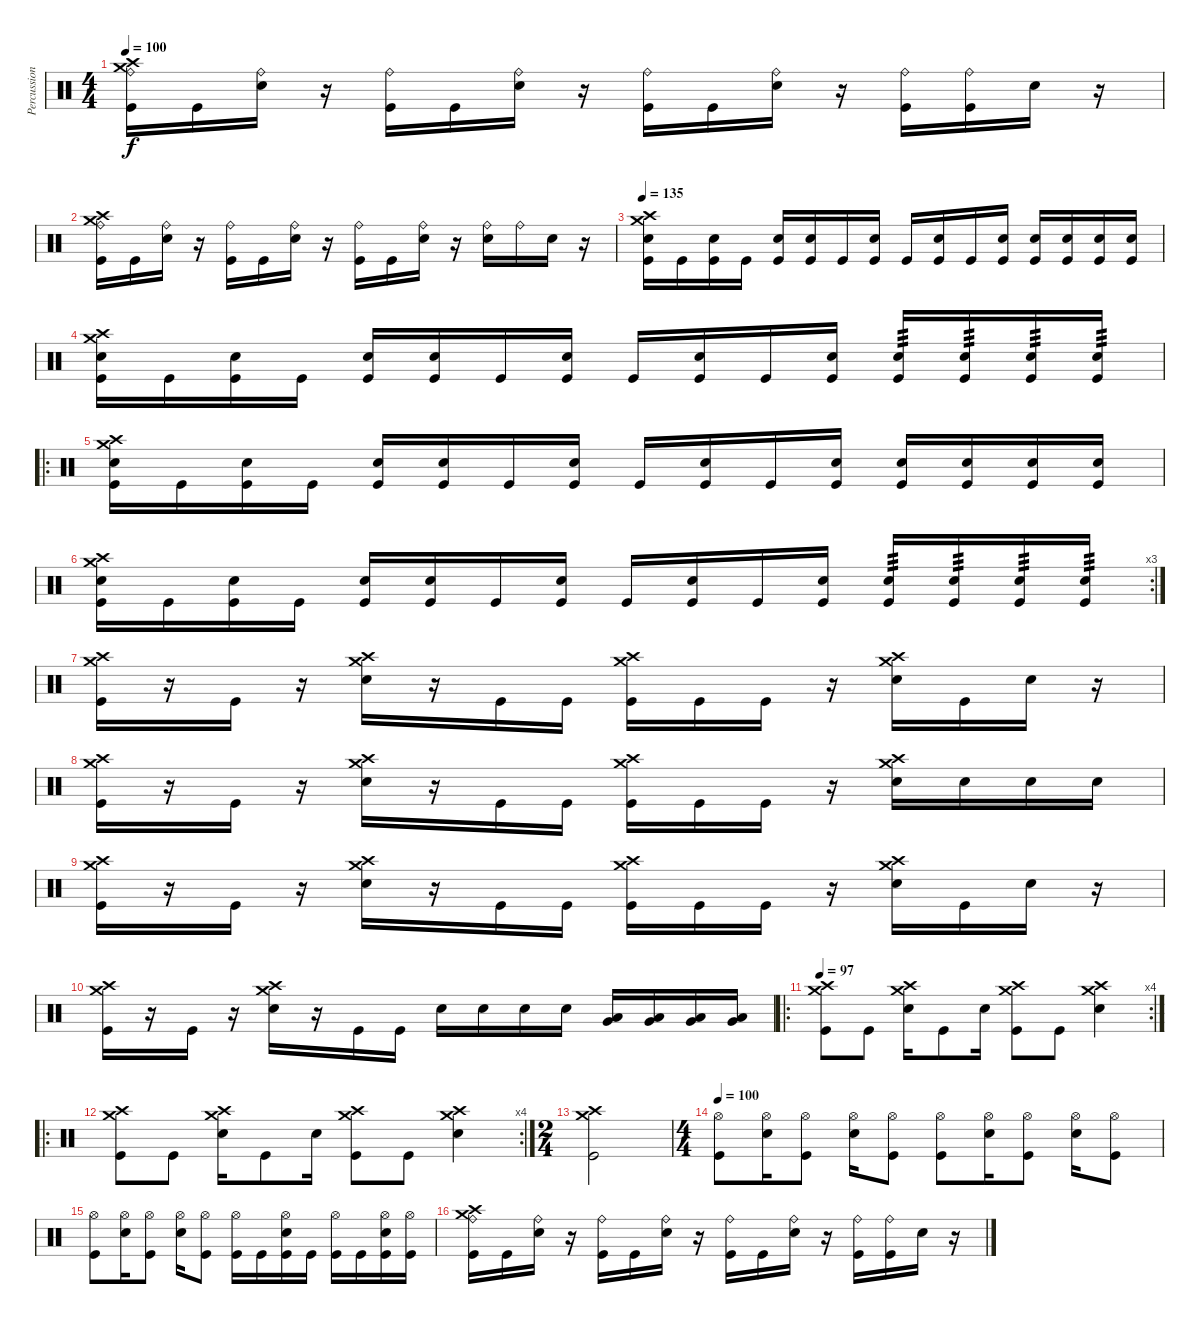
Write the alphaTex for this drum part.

\track ("Percussion" "Percussion") {instrument percussion}
\staff {score}
\articulation defaults
\ts (4 4)
\tempo 100
\clef neutral
\ks c
("Crash medium (hit)" "Crash high (hit)" "Ride (bell)" "Kick (hit)").16{dy f} "Kick (hit)".16 ("Ride (bell)" "Snare (hit) 2").16 r.16 ("Ride (bell)" "Kick (hit)").16 "Kick (hit)".16 ("Ride (bell)" "Snare (hit) 2").16 r.16 ("Ride (bell)" "Kick (hit)").16 "Kick (hit)".16 ("Ride (bell)" "Snare (hit) 2").16 r.16 ("Ride (bell)" "Kick (hit)").16 ("Ride (bell)" "Kick (hit)").16 "Snare (hit) 2".16 r.16 |
("Crash medium (hit)" "Crash high (hit)" "Ride (bell)" "Kick (hit)").16 "Kick (hit)".16 ("Ride (bell)" "Snare (hit) 2").16 r.16 ("Ride (bell)" "Kick (hit)").16 "Kick (hit)".16 ("Ride (bell)" "Snare (hit) 2").16 r.16 ("Ride (bell)" "Kick (hit)").16 "Kick (hit)".16 ("Ride (bell)" "Snare (hit) 2").16 r.16 ("Ride (bell)" "Snare (hit) 2").16 "Ride (bell)".16 "Snare (hit) 2".16 r.16 |
\tempo 135
("Crash medium (hit)" "Crash high (hit)" "Snare (hit) 2" "Kick (hit)").16 "Kick (hit)".16 ("Snare (hit) 2" "Kick (hit)").16 "Kick (hit)".16 ("Snare (hit) 2" "Kick (hit)").16 ("Snare (hit) 2" "Kick (hit)").16 "Kick (hit)".16 ("Snare (hit) 2" "Kick (hit)").16 "Kick (hit)".16 ("Snare (hit) 2" "Kick (hit)").16 "Kick (hit)".16 ("Snare (hit) 2" "Kick (hit)").16 ("Snare (hit) 2" "Kick (hit)").16 ("Snare (hit) 2" "Kick (hit)").16 ("Snare (hit) 2" "Kick (hit)").16 ("Snare (hit) 2" "Kick (hit)").16 |
("Crash medium (hit)" "Crash high (hit)" "Snare (hit) 2" "Kick (hit)").16 "Kick (hit)".16 ("Snare (hit) 2" "Kick (hit)").16 "Kick (hit)".16 ("Snare (hit) 2" "Kick (hit)").16 ("Snare (hit) 2" "Kick (hit)").16 "Kick (hit)".16 ("Snare (hit) 2" "Kick (hit)").16 "Kick (hit)".16 ("Snare (hit) 2" "Kick (hit)").16 "Kick (hit)".16 ("Snare (hit) 2" "Kick (hit)").16 ("Snare (hit) 2" "Kick (hit)").16{tp 3} ("Snare (hit) 2" "Kick (hit)").16{tp 3} ("Snare (hit) 2" "Kick (hit)").16{tp 3} ("Snare (hit) 2" "Kick (hit)").16{tp 3} |
\ro
("Crash medium (hit)" "Crash high (hit)" "Snare (hit) 2" "Kick (hit)").16 "Kick (hit)".16 ("Snare (hit) 2" "Kick (hit)").16 "Kick (hit)".16 ("Snare (hit) 2" "Kick (hit)").16 ("Snare (hit) 2" "Kick (hit)").16 "Kick (hit)".16 ("Snare (hit) 2" "Kick (hit)").16 "Kick (hit)".16 ("Snare (hit) 2" "Kick (hit)").16 "Kick (hit)".16 ("Snare (hit) 2" "Kick (hit)").16 ("Snare (hit) 2" "Kick (hit)").16 ("Snare (hit) 2" "Kick (hit)").16 ("Snare (hit) 2" "Kick (hit)").16 ("Snare (hit) 2" "Kick (hit)").16 |
\rc 3
("Crash medium (hit)" "Crash high (hit)" "Snare (hit) 2" "Kick (hit)").16 "Kick (hit)".16 ("Snare (hit) 2" "Kick (hit)").16 "Kick (hit)".16 ("Snare (hit) 2" "Kick (hit)").16 ("Snare (hit) 2" "Kick (hit)").16 "Kick (hit)".16 ("Snare (hit) 2" "Kick (hit)").16 "Kick (hit)".16 ("Snare (hit) 2" "Kick (hit)").16 "Kick (hit)".16 ("Snare (hit) 2" "Kick (hit)").16 ("Snare (hit) 2" "Kick (hit)").16{tp 3} ("Snare (hit) 2" "Kick (hit)").16{tp 3} ("Snare (hit) 2" "Kick (hit)").16{tp 3} ("Snare (hit) 2" "Kick (hit)").16{tp 3} |
("Crash medium (hit)" "Crash high (hit)" "Kick (hit)").16 r.16 "Kick (hit)".16 r.16 ("Crash medium (hit)" "Crash high (hit)" "Snare (hit) 2").16 r.16 "Kick (hit)".16 "Kick (hit)".16 ("Crash medium (hit)" "Crash high (hit)" "Kick (hit)").16 "Kick (hit)".16 "Kick (hit)".16 r.16 ("Crash medium (hit)" "Crash high (hit)" "Snare (hit) 2").16 "Kick (hit)".16 "Snare (hit) 2".16 r.16 |
("Crash medium (hit)" "Crash high (hit)" "Kick (hit)").16 r.16 "Kick (hit)".16 r.16 ("Crash medium (hit)" "Crash high (hit)" "Snare (hit) 2").16 r.16 "Kick (hit)".16 "Kick (hit)".16 ("Crash medium (hit)" "Crash high (hit)" "Kick (hit)").16 "Kick (hit)".16 "Kick (hit)".16 r.16 ("Crash medium (hit)" "Crash high (hit)" "Snare (hit) 2").16 "Snare (hit) 2".16 "Snare (hit) 2".16 "Snare (hit) 2".16 |
("Crash medium (hit)" "Crash high (hit)" "Kick (hit)").16 r.16 "Kick (hit)".16 r.16 ("Crash medium (hit)" "Crash high (hit)" "Snare (hit) 2").16 r.16 "Kick (hit)".16 "Kick (hit)".16 ("Crash medium (hit)" "Crash high (hit)" "Kick (hit)").16 "Kick (hit)".16 "Kick (hit)".16 r.16 ("Crash medium (hit)" "Crash high (hit)" "Snare (hit) 2").16 "Kick (hit)".16 "Snare (hit) 2".16 r.16 |
("Crash medium (hit)" "Crash high (hit)" "Kick (hit)").16 r.16 "Kick (hit)".16 r.16 ("Crash medium (hit)" "Crash high (hit)" "Snare (hit) 2").16 r.16 "Kick (hit)".16 "Kick (hit)".16 "Electric Snare (hit)".16 "Electric Snare (hit)".16 "Electric Snare (hit)".16 "Electric Snare (hit)".16 ("Very Low Tom (hit)" "Low Floor Tom (hit)").16 ("Very Low Tom (hit)" "Low Floor Tom (hit)").16 ("Very Low Tom (hit)" "Low Floor Tom (hit)").16 ("Very Low Tom (hit)" "Low Floor Tom (hit)").16 |
\ro
\rc 4
\tempo 97
("Crash medium (hit)" "Crash high (hit)" "Kick (hit)").8 "Kick (hit)".8 ("Crash medium (hit)" "Crash high (hit)" "Snare (hit) 2").16 "Kick (hit)".8 "Snare (hit) 2".16 ("Crash medium (hit)" "Crash high (hit)" "Kick (hit)").8 "Kick (hit)".8 ("Crash medium (hit)" "Crash high (hit)" "Snare (hit) 2").4 |
\ro
\rc 4
("Crash medium (hit)" "Crash high (hit)" "Kick (hit)").8 "Kick (hit)".8 ("Crash medium (hit)" "Crash high (hit)" "Snare (hit) 2").16 "Kick (hit)".8 "Snare (hit) 2".16 ("Crash medium (hit)" "Crash high (hit)" "Kick (hit)").8 "Kick (hit)".8 ("Crash medium (hit)" "Crash high (hit)" "Snare (hit) 2").4 |
\ts (2 4)
("Crash medium (hit)" "Crash high (hit)" "Kick (hit)").2 |
\ts (4 4)
\tempo 100
("Hi-Hat (open)" "Kick (hit)").8 ("Hi-Hat (open)" "Snare (hit) 2").16 ("Hi-Hat (open)" "Kick (hit)").8 ("Hi-Hat (open)" "Snare (hit) 2").16 ("Hi-Hat (open)" "Kick (hit)").8 ("Hi-Hat (open)" "Kick (hit)").8 ("Hi-Hat (open)" "Snare (hit) 2").16 ("Hi-Hat (open)" "Kick (hit)").8 ("Hi-Hat (open)" "Snare (hit) 2").16 ("Hi-Hat (open)" "Kick (hit)").8 |
("Hi-Hat (open)" "Kick (hit)").8 ("Hi-Hat (open)" "Snare (hit) 2").16 ("Hi-Hat (open)" "Kick (hit)").8 ("Hi-Hat (open)" "Snare (hit) 2").16 ("Hi-Hat (open)" "Kick (hit)").8 ("Hi-Hat (open)" "Kick (hit)").16 "Kick (hit)".16 ("Hi-Hat (open)" "Snare (hit) 2" "Kick (hit)").16 "Kick (hit)".16 ("Hi-Hat (open)" "Kick (hit)").16 "Kick (hit)".16 ("Hi-Hat (open)" "Snare (hit) 2" "Kick (hit)").16 ("Hi-Hat (open)" "Kick (hit)").16 |
("Crash medium (hit)" "Crash high (hit)" "Ride (bell)" "Kick (hit)").16 "Kick (hit)".16 ("Ride (bell)" "Snare (hit) 2").16 r.16 ("Ride (bell)" "Kick (hit)").16 "Kick (hit)".16 ("Ride (bell)" "Snare (hit) 2").16 r.16 ("Ride (bell)" "Kick (hit)").16 "Kick (hit)".16 ("Ride (bell)" "Snare (hit) 2").16 r.16 ("Ride (bell)" "Kick (hit)").16 ("Ride (bell)" "Kick (hit)").16 "Snare (hit) 2".16 r.16
